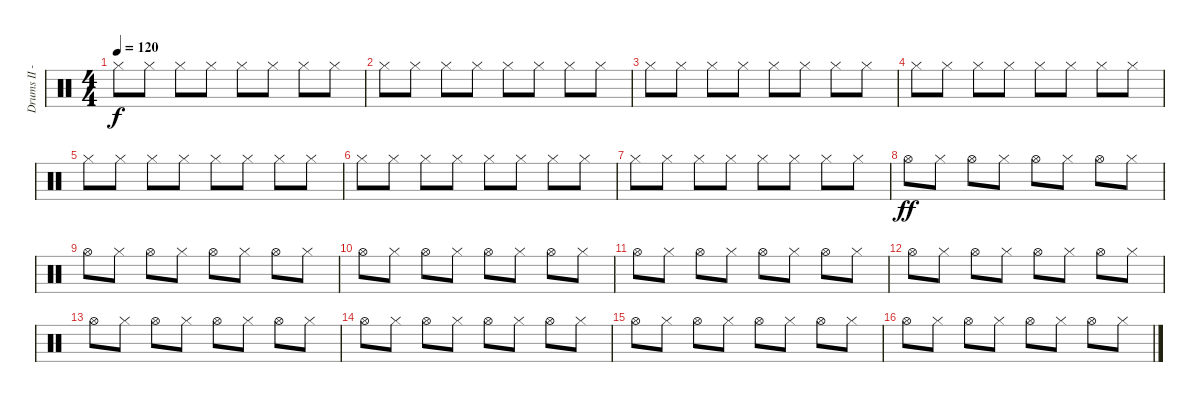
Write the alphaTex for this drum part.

\track ("Drums II - Bobby Schayer" "Drums II -") {instrument percussion}
\staff {score}
\articulation defaults
\ts (4 4)
\tempo 120
\clef neutral
\ks c "Hi-Hat (closed)".8{dy f} "Hi-Hat (closed)".8 "Hi-Hat (closed)".8 "Hi-Hat (closed)".8 "Hi-Hat (closed)".8 "Hi-Hat (closed)".8 "Hi-Hat (closed)".8 "Hi-Hat (closed)".8
|
"Hi-Hat (closed)".8 "Hi-Hat (closed)".8 "Hi-Hat (closed)".8 "Hi-Hat (closed)".8 "Hi-Hat (closed)".8 "Hi-Hat (closed)".8 "Hi-Hat (closed)".8 "Hi-Hat (closed)".8 |
"Hi-Hat (closed)".8 "Hi-Hat (closed)".8 "Hi-Hat (closed)".8 "Hi-Hat (closed)".8 "Hi-Hat (closed)".8 "Hi-Hat (closed)".8 "Hi-Hat (closed)".8 "Hi-Hat (closed)".8 |
"Hi-Hat (closed)".8 "Hi-Hat (closed)".8 "Hi-Hat (closed)".8 "Hi-Hat (closed)".8 "Hi-Hat (closed)".8 "Hi-Hat (closed)".8 "Hi-Hat (closed)".8 "Hi-Hat (closed)".8 |
"Hi-Hat (closed)".8 "Hi-Hat (closed)".8 "Hi-Hat (closed)".8 "Hi-Hat (closed)".8 "Hi-Hat (closed)".8 "Hi-Hat (closed)".8 "Hi-Hat (closed)".8 "Hi-Hat (closed)".8 |
"Hi-Hat (closed)".8 "Hi-Hat (closed)".8 "Hi-Hat (closed)".8 "Hi-Hat (closed)".8 "Hi-Hat (closed)".8 "Hi-Hat (closed)".8 "Hi-Hat (closed)".8 "Hi-Hat (closed)".8 |
"Hi-Hat (closed)".8 "Hi-Hat (closed)".8 "Hi-Hat (closed)".8 "Hi-Hat (closed)".8 "Hi-Hat (closed)".8 "Hi-Hat (closed)".8 "Hi-Hat (closed)".8 "Hi-Hat (closed)".8 |
"Hi-Hat (open)".8{dy ff} "Hi-Hat (closed)".8 "Hi-Hat (open)".8 "Hi-Hat (closed)".8 "Hi-Hat (open)".8 "Hi-Hat (closed)".8 "Hi-Hat (open)".8 "Hi-Hat (closed)".8 |
"Hi-Hat (open)".8 "Hi-Hat (closed)".8 "Hi-Hat (open)".8 "Hi-Hat (closed)".8 "Hi-Hat (open)".8 "Hi-Hat (closed)".8 "Hi-Hat (open)".8 "Hi-Hat (closed)".8 |
"Hi-Hat (open)".8 "Hi-Hat (closed)".8 "Hi-Hat (open)".8 "Hi-Hat (closed)".8 "Hi-Hat (open)".8 "Hi-Hat (closed)".8 "Hi-Hat (open)".8 "Hi-Hat (closed)".8 |
"Hi-Hat (open)".8 "Hi-Hat (closed)".8 "Hi-Hat (open)".8 "Hi-Hat (closed)".8 "Hi-Hat (open)".8 "Hi-Hat (closed)".8 "Hi-Hat (open)".8 "Hi-Hat (closed)".8 |
"Hi-Hat (open)".8 "Hi-Hat (closed)".8 "Hi-Hat (open)".8 "Hi-Hat (closed)".8 "Hi-Hat (open)".8 "Hi-Hat (closed)".8 "Hi-Hat (open)".8 "Hi-Hat (closed)".8 |
"Hi-Hat (open)".8 "Hi-Hat (closed)".8 "Hi-Hat (open)".8 "Hi-Hat (closed)".8 "Hi-Hat (open)".8 "Hi-Hat (closed)".8 "Hi-Hat (open)".8 "Hi-Hat (closed)".8 |
"Hi-Hat (open)".8 "Hi-Hat (closed)".8 "Hi-Hat (open)".8 "Hi-Hat (closed)".8 "Hi-Hat (open)".8 "Hi-Hat (closed)".8 "Hi-Hat (open)".8 "Hi-Hat (closed)".8 |
"Hi-Hat (open)".8 "Hi-Hat (closed)".8 "Hi-Hat (open)".8 "Hi-Hat (closed)".8 "Hi-Hat (open)".8 "Hi-Hat (closed)".8 "Hi-Hat (open)".8 "Hi-Hat (closed)".8 |
"Hi-Hat (open)".8 "Hi-Hat (closed)".8 "Hi-Hat (open)".8 "Hi-Hat (closed)".8 "Hi-Hat (open)".8 "Hi-Hat (closed)".8 "Hi-Hat (open)".8 "Hi-Hat (closed)".8
